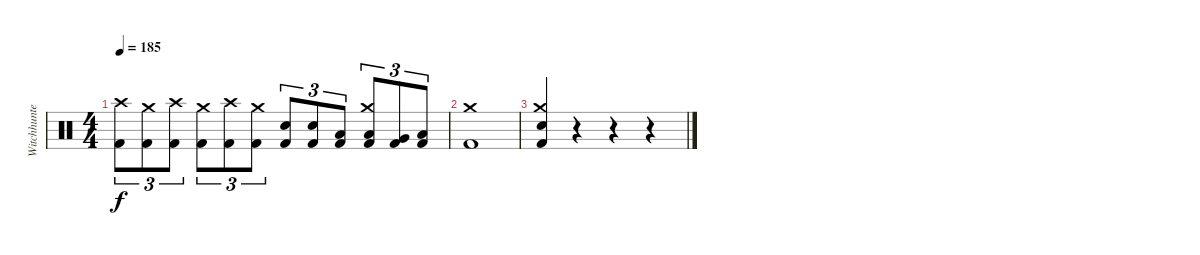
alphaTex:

\track ("Witchhunter" "Witchhunte") {instrument percussion}
\staff {score}
\articulation defaults
\ts (4 4)
\tempo 185
\clef neutral
\ks c
("Crash high (hit)" "Kick (hit) 2").8{tu (3 2) dy f} ("Crash medium (hit)" "Kick (hit) 2").8{tu (3 2)} ("Crash high (hit)" "Kick (hit) 2").8{tu (3 2)} ("Crash medium (hit)" "Kick (hit) 2").8{tu (3 2)} ("Crash high (hit)" "Kick (hit) 2").8{tu (3 2)} ("Crash medium (hit)" "Kick (hit) 2").8{tu (3 2)} ("Snare (hit) 2" "Kick (hit) 2").8{tu (3 2)} ("Snare (hit) 2" "Kick (hit) 2").8{tu (3 2)} ("Low Tom (hit)" "Kick (hit) 2").8{tu (3 2)} ("Crash medium (hit)" "Low Tom (hit)" "Kick (hit) 2").8{tu (3 2)} ("Very Low Tom (hit)" "Kick (hit) 2").8{tu (3 2)} ("Low Floor Tom (hit)" "Kick (hit) 2").8{tu (3 2)} |
("Crash medium (hit)" "Kick (hit) 2").1 |
("Crash medium (hit)" "Snare (hit) 2" "Kick (hit) 2").4 r.4 r.4 r.4
